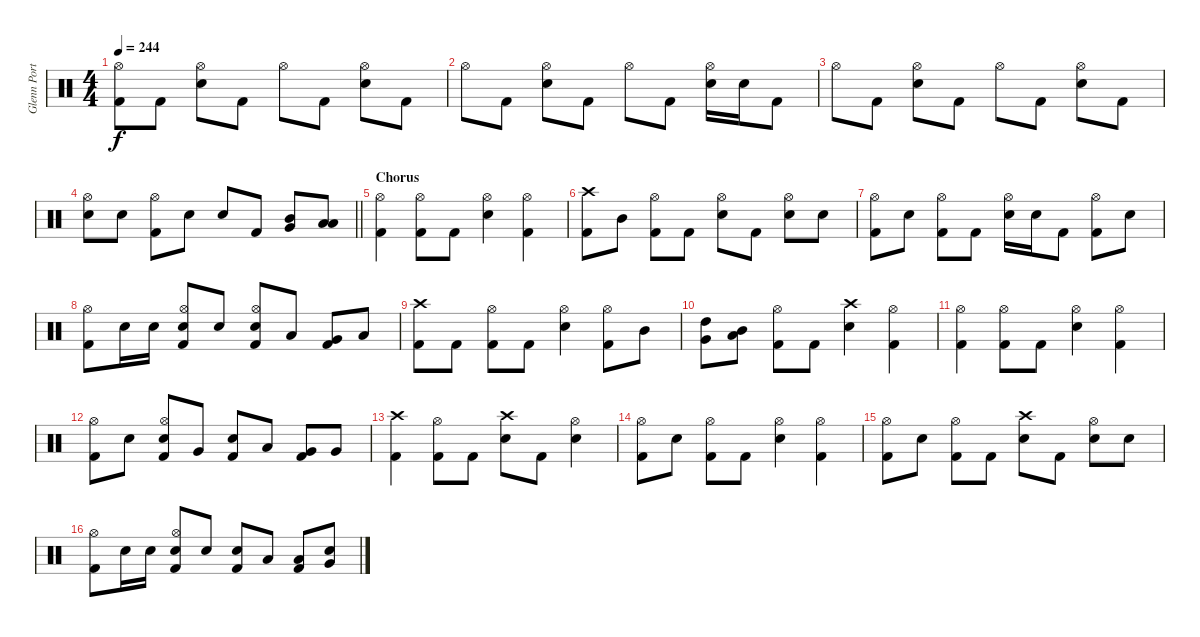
\track ("Glenn Porter - Drums" "Glenn Port") {instrument percussion}
\staff {score}
\articulation defaults
\ts (4 4)
\tempo 244
\clef neutral
\ks c
("Kick (hit) 2" "Hi-Hat (open)").8{dy f} "Kick (hit) 2".8 ("Snare (hit) 2" "Hi-Hat (open)").8 "Kick (hit) 2".8 "Hi-Hat (open)".8 "Kick (hit) 2".8 ("Snare (hit) 2" "Hi-Hat (open)").8 "Kick (hit) 2".8 |
"Hi-Hat (open)".8 "Kick (hit) 2".8 ("Snare (hit) 2" "Hi-Hat (open)").8 "Kick (hit) 2".8 "Hi-Hat (open)".8 "Kick (hit) 2".8 ("Snare (hit) 2" "Hi-Hat (open)").16 "Snare (hit) 2".16 "Kick (hit) 2".8 |
"Hi-Hat (open)".8 "Kick (hit) 2".8 ("Snare (hit) 2" "Hi-Hat (open)").8 "Kick (hit) 2".8 "Hi-Hat (open)".8 "Kick (hit) 2".8 ("Snare (hit) 2" "Hi-Hat (open)").8 "Kick (hit) 2".8 |
\barLineRight lightlight
("Snare (hit) 2" "Hi-Hat (open)").8 "Snare (hit) 2".8 ("Kick (hit) 2" "Hi-Hat (open)").8 "Snare (hit) 2".8 "Snare (hit) 2".8 "Kick (hit) 2".8 ("Mid Tom (hit)" "Very Low Tom (hit)").8 ("Low Tom (hit)" "Low Floor Tom (hit)").8 |
\section ("" "Chorus")
("Kick (hit) 2" "Hi-Hat (open)").4 ("Kick (hit) 2" "Hi-Hat (open)").8 "Kick (hit) 2".8 ("Snare (hit) 2" "Hi-Hat (open)").4 ("Kick (hit) 2" "Hi-Hat (open)").4 |
("Kick (hit) 2" "Crash high (hit)").8 "Mid Tom (hit)".8 ("Kick (hit) 2" "Hi-Hat (open)").8 "Kick (hit) 2".8 ("Snare (hit) 2" "Hi-Hat (open)").8 "Kick (hit) 2".8 ("Snare (hit) 2" "Hi-Hat (open)").8 "Snare (hit) 2".8 |
("Kick (hit) 2" "Hi-Hat (open)").8 "Snare (hit) 2".8 ("Kick (hit) 2" "Hi-Hat (open)").8 "Kick (hit) 2".8 ("Snare (hit) 2" "Hi-Hat (open)").16 "Snare (hit) 2".16 "Kick (hit) 2".8 ("Kick (hit) 2" "Hi-Hat (open)").8 "Snare (hit) 2".8 |
("Kick (hit) 2" "Hi-Hat (open)").8 "Snare (hit) 2".16 "Snare (hit) 2".16 ("Snare (hit) 2" "Kick (hit) 2" "Hi-Hat (open)").8 "Snare (hit) 2".8 ("Snare (hit) 2" "Kick (hit) 2" "Hi-Hat (open)").8 "Low Tom (hit)".8 ("Very Low Tom (hit)" "Kick (hit) 2").8 "Low Floor Tom (hit)".8 |
("Kick (hit) 2" "Crash high (hit)").8 "Kick (hit) 2".8 ("Kick (hit) 2" "Hi-Hat (open)").8 "Kick (hit) 2".8 ("Snare (hit) 2" "Hi-Hat (open)").4 ("Kick (hit) 2" "Hi-Hat (open)").8 "Mid Tom (hit)".8 |
("High Tom (hit)" "Very Low Tom (hit)").8 ("Mid Tom (hit)" "Low Floor Tom (hit)").8 ("Kick (hit) 2" "Hi-Hat (open)").8 "Kick (hit) 2".8 ("Crash high (hit)" "Snare (hit) 2").4 ("Kick (hit) 2" "Hi-Hat (open)").4 |
("Kick (hit) 2" "Hi-Hat (open)").4 ("Kick (hit) 2" "Hi-Hat (open)").8 "Kick (hit) 2".8 ("Snare (hit) 2" "Hi-Hat (open)").4 ("Kick (hit) 2" "Hi-Hat (open)").4 |
("Kick (hit) 2" "Hi-Hat (open)").8 "Snare (hit) 2".8 ("Snare (hit) 2" "Hi-Hat (open)" "Kick (hit) 2").8 "Very Low Tom (hit)".8 ("Snare (hit) 2" "Kick (hit) 2").8 "Low Tom (hit)".8 ("Very Low Tom (hit)" "Kick (hit) 2").8 "Very Low Tom (hit)".8 |
("Crash high (hit)" "Kick (hit) 2").4 ("Kick (hit) 2" "Hi-Hat (open)").8 "Kick (hit) 2".8 ("Crash high (hit)" "Snare (hit) 2").8 "Kick (hit) 2".8 ("Snare (hit) 2" "Hi-Hat (open)").4 |
("Kick (hit) 2" "Hi-Hat (open)").8 "Snare (hit) 2".8 ("Kick (hit) 2" "Hi-Hat (open)").8 "Kick (hit) 2".8 ("Snare (hit) 2" "Hi-Hat (open)").4 ("Kick (hit) 2" "Hi-Hat (open)").4 |
("Kick (hit) 2" "Hi-Hat (open)").8 "Snare (hit) 2".8 ("Kick (hit) 2" "Hi-Hat (open)").8 "Kick (hit) 2".8 ("Crash high (hit)" "Snare (hit) 2").8 "Kick (hit) 2".8 ("Snare (hit) 2" "Hi-Hat (open)").8 "Snare (hit) 2".8 |
("Kick (hit) 2" "Hi-Hat (open)").8 "Snare (hit) 2".16 "Snare (hit) 2".16 ("Snare (hit) 2" "Kick (hit) 2" "Hi-Hat (open)").8 "Snare (hit) 2".8 ("Snare (hit) 2" "Kick (hit) 2").8 "Low Tom (hit)".8 ("Low Tom (hit)" "Kick (hit) 2").8 ("Very Low Tom (hit)" "Snare (hit) 2").8
